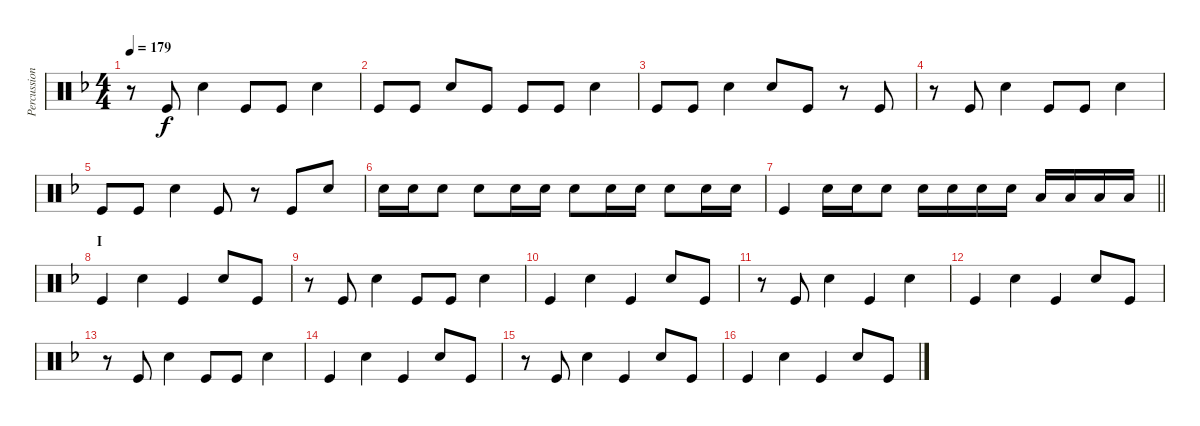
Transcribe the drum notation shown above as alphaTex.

\track ("Percussion 02" "Percussion") {instrument percussion}
\staff {score}
\articulation defaults
\ts (4 4)
\tempo 179
\clef neutral
\ks dminor
r.8{dy f} "Kick (hit)".8 "Snare (hit) 2".4 "Kick (hit)".8 "Kick (hit)".8 "Snare (hit) 2".4 |
"Kick (hit)".8 "Kick (hit)".8 "Snare (hit) 2".8 "Kick (hit)".8 "Kick (hit)".8 "Kick (hit)".8 "Snare (hit) 2".4 |
"Kick (hit)".8 "Kick (hit)".8 "Snare (hit) 2".4 "Snare (hit) 2".8 "Kick (hit)".8 r.8 "Kick (hit)".8 |
r.8 "Kick (hit)".8 "Snare (hit) 2".4 "Kick (hit)".8 "Kick (hit)".8 "Snare (hit) 2".4 |
"Kick (hit)".8 "Kick (hit)".8 "Snare (hit) 2".4 "Kick (hit)".8 r.8 "Kick (hit)".8 "Snare (hit) 2".8 |
"Snare (hit) 2".16 "Snare (hit) 2".16 "Snare (hit) 2".8 "Snare (hit) 2".8 "Snare (hit) 2".16 "Snare (hit) 2".16 "Snare (hit) 2".8 "Snare (hit) 2".16 "Snare (hit) 2".16 "Snare (hit) 2".8 "Snare (hit) 2".16 "Snare (hit) 2".16 |
\barLineRight lightlight "Kick (hit)".4 "Snare (hit) 2".16 "Snare (hit) 2".16 "Snare (hit) 2".8 "Snare (hit) 2".16 "Snare (hit) 2".16 "Snare (hit) 2".16 "Snare (hit) 2".16 "Low Tom (hit)".16 "Low Tom (hit)".16 "Low Tom (hit)".16 "Low Tom (hit)".16
|
\section ("" "I")
"Kick (hit)".4 "Snare (hit) 2".4 "Kick (hit)".4 "Snare (hit) 2".8 "Kick (hit)".8 |
r.8 "Kick (hit)".8 "Snare (hit) 2".4 "Kick (hit)".8 "Kick (hit)".8 "Snare (hit) 2".4 |
"Kick (hit)".4 "Snare (hit) 2".4 "Kick (hit)".4 "Snare (hit) 2".8 "Kick (hit)".8 |
r.8 "Kick (hit)".8 "Snare (hit) 2".4 "Kick (hit)".4 "Snare (hit) 2".4 |
"Kick (hit)".4 "Snare (hit) 2".4 "Kick (hit)".4 "Snare (hit) 2".8 "Kick (hit)".8 |
r.8 "Kick (hit)".8 "Snare (hit) 2".4 "Kick (hit)".8 "Kick (hit)".8 "Snare (hit) 2".4 |
"Kick (hit)".4 "Snare (hit) 2".4 "Kick (hit)".4 "Snare (hit) 2".8 "Kick (hit)".8 |
r.8 "Kick (hit)".8 "Snare (hit) 2".4 "Kick (hit)".4 "Snare (hit) 2".8 "Kick (hit)".8 |
"Kick (hit)".4 "Snare (hit) 2".4 "Kick (hit)".4 "Snare (hit) 2".8 "Kick (hit)".8
